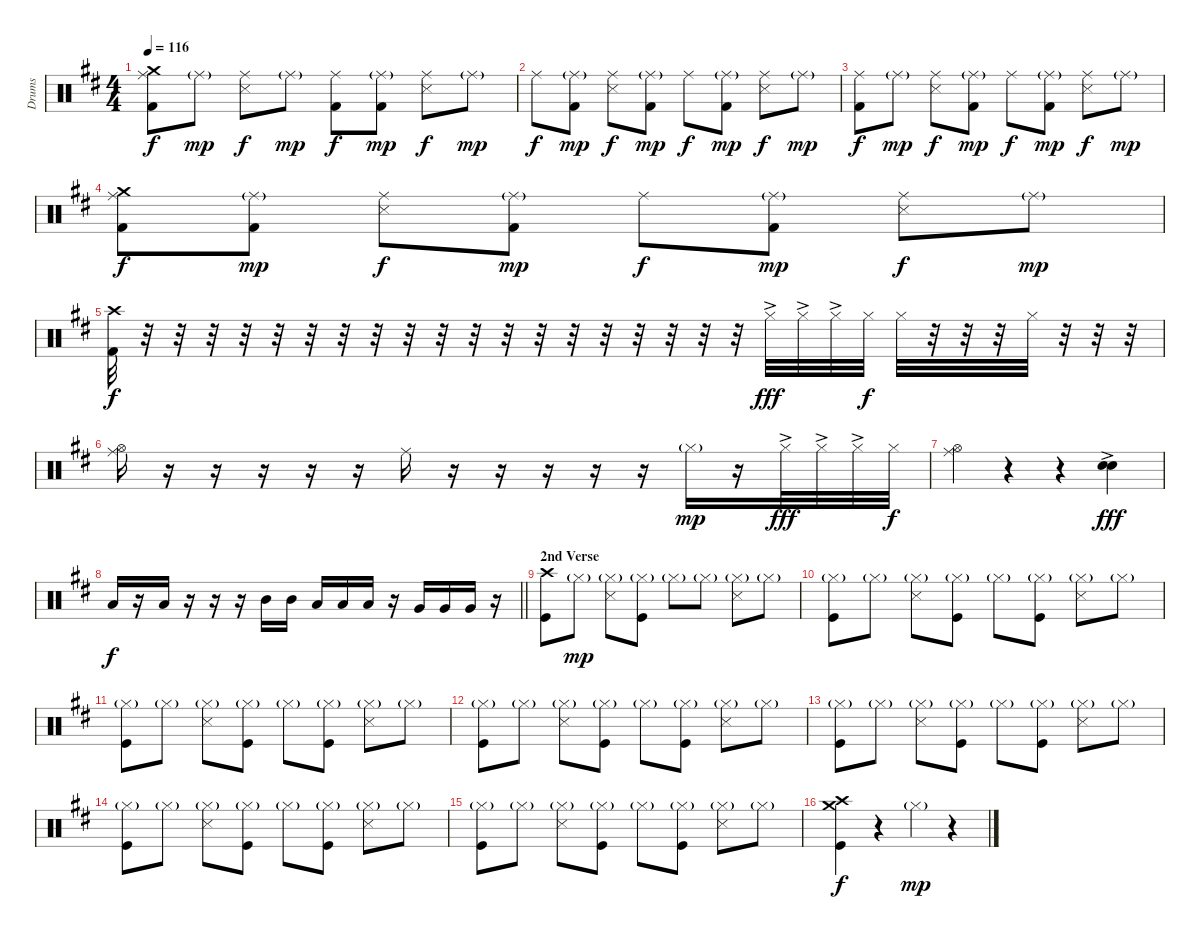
\track ("Drums" "Drums") {instrument percussion}
\staff {score}
\articulation defaults
\ts (4 4)
\tempo 116
\clef neutral
\ks d
("Crash medium (hit)" "Ride (middle)" "Kick (hit) 2").8{dy f} "Ride (middle)"{g}.8{dy mp} ("Ride (middle)" "Snare (side stick) 3").8{dy f} "Ride (middle)"{g}.8{dy mp} ("Ride (middle)" "Kick (hit) 2").8{dy f} ("Ride (middle)"{g} "Kick (hit) 2").8{dy mp} ("Ride (middle)" "Snare (side stick) 3").8{dy f} "Ride (middle)"{g}.8{dy mp} |
"Ride (middle)".8{dy f} ("Ride (middle)"{g} "Kick (hit) 2").8{dy mp} ("Ride (middle)" "Snare (side stick) 3").8{dy f} ("Ride (middle)"{g} "Kick (hit) 2").8{dy mp} "Ride (middle)".8{dy f} ("Ride (middle)"{g} "Kick (hit) 2").8{dy mp} ("Ride (middle)" "Snare (side stick) 3").8{dy f} "Ride (middle)"{g}.8{dy mp} |
("Ride (middle)" "Kick (hit) 2").8{dy f} "Ride (middle)"{g}.8{dy mp} ("Ride (middle)" "Snare (side stick) 3").8{dy f} ("Ride (middle)"{g} "Kick (hit) 2").8{dy mp} "Ride (middle)".8{dy f} ("Ride (middle)"{g} "Kick (hit) 2").8{dy mp} ("Ride (middle)" "Snare (side stick) 3").8{dy f} "Ride (middle)"{g}.8{dy mp} |
("Crash medium (hit)" "Ride (middle)" "Kick (hit) 2").8{dy f} ("Ride (middle)"{g} "Kick (hit) 2").8{dy mp} ("Ride (middle)" "Snare (side stick) 3").8{dy f} ("Ride (middle)"{g} "Kick (hit) 2").8{dy mp} "Ride (middle)".8{dy f} ("Ride (middle)"{g} "Kick (hit) 2").8{dy mp} ("Ride (middle)" "Snare (side stick) 3").8{dy f} "Ride (middle)"{g}.8{dy mp} |
("Crash high (hit)" "Kick (hit) 2").32{dy f} r.32 r.32 r.32 r.32 r.32 r.32 r.32 r.32 r.32 r.32 r.32 r.32 r.32 r.32 r.32 r.32 r.32 r.32 r.32 "Hi-Hat (closed)"{ac}.32{dy fff} "Hi-Hat (closed)"{ac}.32 "Hi-Hat (closed)"{ac}.32 "Hi-Hat (closed)".32{dy f} "Hi-Hat (closed)".32 r.32 r.32 r.32 "Hi-Hat (closed)".32 r.32 r.32 r.32 |
("Hi-Hat (open)" "Ride (middle)").16 r.16 r.16 r.16 r.16 r.16 "Ride (middle)".16 r.16 r.16 r.16 r.16 r.16 "Hi-Hat (closed)"{g}.16{dy mp} r.16 "Hi-Hat (closed)"{ac}.32{dy fff} "Hi-Hat (closed)"{ac}.32 "Hi-Hat (closed)"{ac}.32 "Hi-Hat (closed)".32{dy f} |
("Hi-Hat (open)" "Ride (middle)").4 r.4 r.4 ("Electric Snare (hit)" "Snare (hit) 2"{ac}).4{dy fff} |
\barLineRight lightlight "Low Tom (hit)".16{dy f}
r.16 "Low Tom (hit)".16 r.16 r.16 r.16 "Mid Tom (hit)".16 "Mid Tom (hit)".16 "Low Tom (hit)".16 "Low Tom (hit)".16 "Low Tom (hit)".16 r.16 "Very Low Tom (hit)".16 "Very Low Tom (hit)".16 "Very Low Tom (hit)".16 r.16 |
\section ("" "2nd Verse")
("Crash high (hit)" "Kick (hit)").8 "Hi-Hat (closed)"{g}.8{dy mp} ("Hi-Hat (closed)"{g} "Snare (side stick) 3").8 ("Hi-Hat (closed)"{g} "Kick (hit)").8 "Hi-Hat (closed)"{g}.8 "Hi-Hat (closed)"{g}.8 ("Hi-Hat (closed)"{g} "Snare (side stick) 3").8 "Hi-Hat (closed)"{g}.8 |
("Hi-Hat (closed)"{g} "Kick (hit)").8 "Hi-Hat (closed)"{g}.8 ("Hi-Hat (closed)"{g} "Snare (side stick) 3").8 ("Hi-Hat (closed)"{g} "Kick (hit)").8 "Hi-Hat (closed)"{g}.8 ("Hi-Hat (closed)"{g} "Kick (hit)").8 ("Hi-Hat (closed)"{g} "Snare (side stick) 3").8 "Hi-Hat (closed)"{g}.8 |
("Hi-Hat (closed)"{g} "Kick (hit)").8 "Hi-Hat (closed)"{g}.8 ("Hi-Hat (closed)"{g} "Snare (side stick) 3").8 ("Hi-Hat (closed)"{g} "Kick (hit)").8 "Hi-Hat (closed)"{g}.8 ("Hi-Hat (closed)"{g} "Kick (hit)").8 ("Hi-Hat (closed)"{g} "Snare (side stick) 3").8 "Hi-Hat (closed)"{g}.8 |
("Hi-Hat (closed)"{g} "Kick (hit)").8 "Hi-Hat (closed)"{g}.8 ("Hi-Hat (closed)"{g} "Snare (side stick) 3").8 ("Hi-Hat (closed)"{g} "Kick (hit)").8 "Hi-Hat (closed)"{g}.8 ("Hi-Hat (closed)"{g} "Kick (hit)").8 ("Hi-Hat (closed)"{g} "Snare (side stick) 3").8 "Hi-Hat (closed)"{g}.8 |
("Hi-Hat (closed)"{g} "Kick (hit)").8 "Hi-Hat (closed)"{g}.8 ("Hi-Hat (closed)"{g} "Snare (side stick) 3").8 ("Hi-Hat (closed)"{g} "Kick (hit)").8 "Hi-Hat (closed)"{g}.8 ("Hi-Hat (closed)"{g} "Kick (hit)").8 ("Hi-Hat (closed)"{g} "Snare (side stick) 3").8 "Hi-Hat (closed)"{g}.8 |
("Hi-Hat (closed)"{g} "Kick (hit)").8 "Hi-Hat (closed)"{g}.8 ("Hi-Hat (closed)"{g} "Snare (side stick) 3").8 ("Hi-Hat (closed)"{g} "Kick (hit)").8 "Hi-Hat (closed)"{g}.8 ("Hi-Hat (closed)"{g} "Kick (hit)").8 ("Hi-Hat (closed)"{g} "Snare (side stick) 3").8 "Hi-Hat (closed)"{g}.8 |
("Hi-Hat (closed)"{g} "Kick (hit)").8 "Hi-Hat (closed)"{g}.8 ("Hi-Hat (closed)"{g} "Snare (side stick) 3").8 ("Hi-Hat (closed)"{g} "Kick (hit)").8 "Hi-Hat (closed)"{g}.8 ("Hi-Hat (closed)"{g} "Kick (hit)").8 ("Hi-Hat (closed)"{g} "Snare (side stick) 3").8 "Hi-Hat (closed)"{g}.8 |
("Crash medium (hit)" "Crash high (hit)" "Kick (hit)").4{dy f} r.4 "Hi-Hat (closed)"{g}.4{dy mp} r.4
